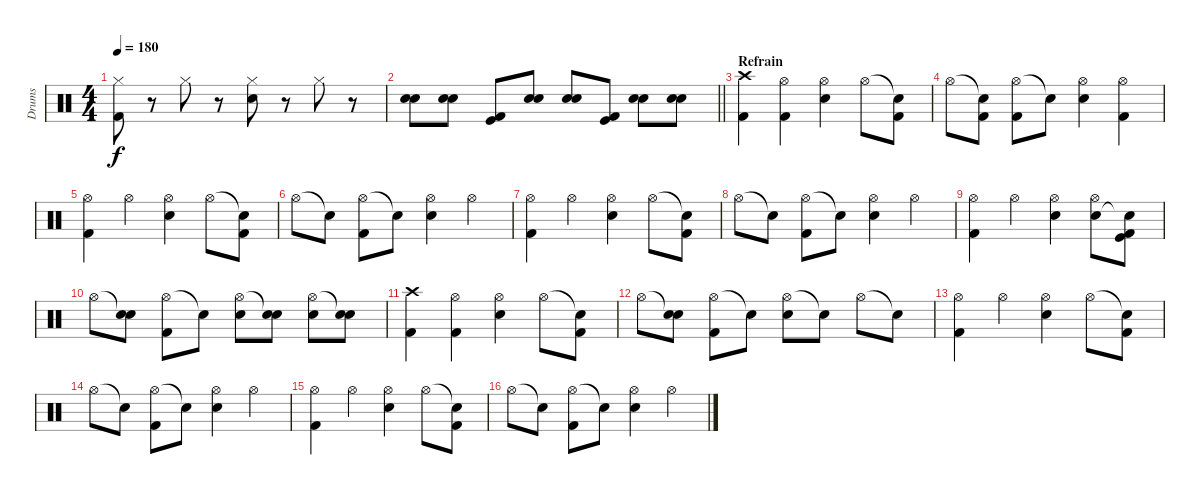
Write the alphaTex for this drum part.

\track ("Drums" "Drums") {instrument percussion}
\staff {score}
\articulation defaults
\ts (4 4)
\tempo 180
\clef neutral
\ks c
("Hi-Hat (closed)" "Kick (hit) 2").8{dy f} r.8 "Hi-Hat (closed)".8 r.8 ("Hi-Hat (closed)" "Snare (hit) 2").8 r.8 "Hi-Hat (closed)".8 r.8 |
\barLineRight lightlight
("Electric Snare (hit)" "Snare (hit) 2").8 ("Electric Snare (hit)" "Snare (hit) 2").8 ("Kick (hit)" "Kick (hit) 2").8 ("Electric Snare (hit)" "Snare (hit) 2").8 ("Electric Snare (hit)" "Snare (hit) 2").8 ("Kick (hit)" "Kick (hit) 2").8 ("Electric Snare (hit)" "Snare (hit) 2").8 ("Electric Snare (hit)" "Snare (hit) 2").8 |
\section ("" "Refrain")
("Crash high (hit)" "Kick (hit) 2").4 ("Hi-Hat (open)" "Kick (hit) 2").4 ("Hi-Hat (open)" "Snare (hit) 2").4 "Hi-Hat (open)".8 ("Snare (hit)"{t} "Kick (hit) 2").8 |
"Hi-Hat (open)".8 ("Snare (hit)"{t} "Kick (hit) 2").8 ("Hi-Hat (open)" "Kick (hit) 2").8 "Snare (hit)"{t}.8 ("Hi-Hat (open)" "Snare (hit) 2").4 ("Hi-Hat (open)" "Kick (hit) 2").4 |
("Hi-Hat (open)" "Kick (hit) 2").4 "Hi-Hat (open)".4 ("Hi-Hat (open)" "Snare (hit) 2").4 "Hi-Hat (open)".8 ("Snare (hit)"{t} "Kick (hit) 2").8 |
"Hi-Hat (open)".8 "Snare (hit)"{t}.8 ("Hi-Hat (open)" "Kick (hit) 2").8 "Snare (hit)"{t}.8 ("Hi-Hat (open)" "Snare (hit) 2").4 "Hi-Hat (open)".4 |
("Hi-Hat (open)" "Kick (hit) 2").4 "Hi-Hat (open)".4 ("Hi-Hat (open)" "Snare (hit) 2").4 "Hi-Hat (open)".8 ("Snare (hit)"{t} "Kick (hit) 2").8 |
"Hi-Hat (open)".8 "Snare (hit)"{t}.8 ("Hi-Hat (open)" "Kick (hit) 2").8 "Snare (hit)"{t}.8 ("Hi-Hat (open)" "Snare (hit) 2").4 "Hi-Hat (open)".4 |
("Hi-Hat (open)" "Kick (hit) 2").4 "Hi-Hat (open)".4 ("Hi-Hat (open)" "Snare (hit) 2").4 ("Hi-Hat (open)" "Snare (hit) 2").8 ("Kick (hit)" "Snare (hit)"{t} "Kick (hit) 2").8 |
"Hi-Hat (open)".8 ("Snare (hit)"{t} "Snare (hit) 2").8 ("Hi-Hat (open)" "Kick (hit) 2").8 "Snare (hit)"{t}.8 ("Hi-Hat (open)" "Snare (hit) 2").8 ("Snare (hit)"{t} "Snare (hit) 2").8 ("Hi-Hat (open)" "Snare (hit) 2").8 ("Snare (hit)"{t} "Snare (hit) 2").8 |
("Crash high (hit)" "Kick (hit) 2").4 ("Hi-Hat (open)" "Kick (hit) 2").4 ("Hi-Hat (open)" "Snare (hit) 2").4 "Hi-Hat (open)".8 ("Snare (hit)"{t} "Kick (hit) 2").8 |
"Hi-Hat (open)".8 ("Snare (hit)"{t} "Snare (hit) 2").8 ("Hi-Hat (open)" "Kick (hit) 2").8 "Snare (hit)"{t}.8 ("Hi-Hat (open)" "Snare (hit) 2").8 "Snare (hit)"{t}.8 "Hi-Hat (open)".8 "Snare (hit)"{t}.8 |
("Hi-Hat (open)" "Kick (hit) 2").4 "Hi-Hat (open)".4 ("Hi-Hat (open)" "Snare (hit) 2").4 "Hi-Hat (open)".8 ("Snare (hit)"{t} "Kick (hit) 2").8 |
"Hi-Hat (open)".8 "Snare (hit)"{t}.8 ("Hi-Hat (open)" "Kick (hit) 2").8 "Snare (hit)"{t}.8 ("Hi-Hat (open)" "Snare (hit) 2").4 "Hi-Hat (open)".4 |
("Hi-Hat (open)" "Kick (hit) 2").4 "Hi-Hat (open)".4 ("Hi-Hat (open)" "Snare (hit) 2").4 "Hi-Hat (open)".8 ("Snare (hit)"{t} "Kick (hit) 2").8 |
"Hi-Hat (open)".8 "Snare (hit)"{t}.8 ("Hi-Hat (open)" "Kick (hit) 2").8 "Snare (hit)"{t}.8 ("Hi-Hat (open)" "Snare (hit) 2").4 "Hi-Hat (open)".4
